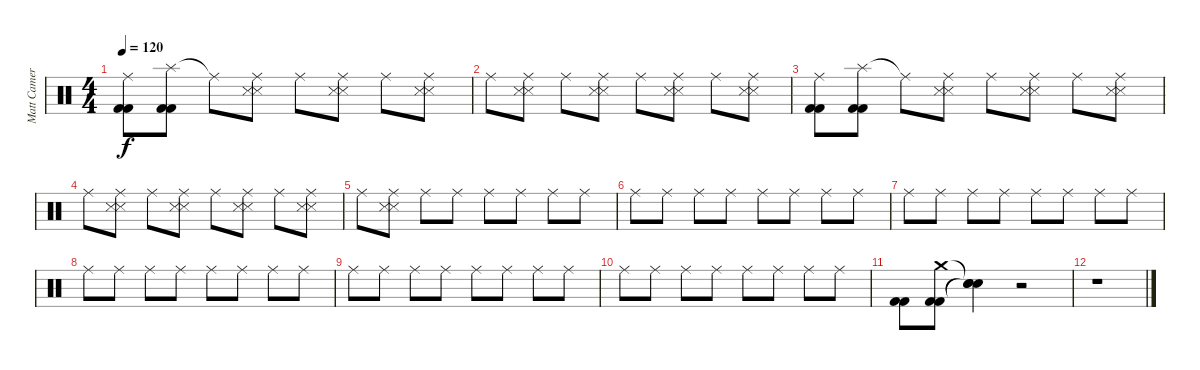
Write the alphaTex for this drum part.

\track ("Matt Cameron" "Matt Camer") {instrument percussion}
\staff {score}
\articulation defaults
\ts (4 4)
\tempo 120
\clef neutral
\ks c
("Ride (middle)" "Kick (hit) 2" "Kick (hit) 2").8{dy f} ("Splash (hit)" "Kick (hit) 2" "Kick (hit) 2").8 "Ride (middle)"{t}.8 ("Ride (middle)" "Snare (side stick) 3" "Snare (side stick) 3").8 "Ride (middle)".8 ("Ride (middle)" "Snare (side stick) 3" "Snare (side stick) 3").8 "Ride (middle)".8 ("Ride (middle)" "Snare (side stick) 3" "Snare (side stick) 3").8 |
"Ride (middle)".8 ("Ride (middle)" "Snare (side stick) 3" "Snare (side stick) 3").8 "Ride (middle)".8 ("Ride (middle)" "Snare (side stick) 3" "Snare (side stick) 3").8 "Ride (middle)".8 ("Ride (middle)" "Snare (side stick) 3" "Snare (side stick) 3").8 "Ride (middle)".8 ("Ride (middle)" "Snare (side stick) 3" "Snare (side stick) 3").8 |
("Ride (middle)" "Kick (hit) 2" "Kick (hit) 2").8 ("Splash (hit)" "Kick (hit) 2" "Kick (hit) 2").8 "Ride (middle)"{t}.8 ("Ride (middle)" "Snare (side stick) 3" "Snare (side stick) 3").8 "Ride (middle)".8 ("Ride (middle)" "Snare (side stick) 3" "Snare (side stick) 3").8 "Ride (middle)".8 ("Ride (middle)" "Snare (side stick) 3" "Snare (side stick) 3").8 |
"Ride (middle)".8 ("Ride (middle)" "Snare (side stick) 3" "Snare (side stick) 3").8 "Ride (middle)".8 ("Ride (middle)" "Snare (side stick) 3" "Snare (side stick) 3").8 "Ride (middle)".8 ("Ride (middle)" "Snare (side stick) 3" "Snare (side stick) 3").8 "Ride (middle)".8 ("Ride (middle)" "Snare (side stick) 3" "Snare (side stick) 3").8 |
"Ride (middle)".8 ("Ride (middle)" "Snare (side stick) 3" "Snare (side stick) 3").8 "Ride (middle)".8 "Ride (middle)".8 "Ride (middle)".8 "Ride (middle)".8 "Ride (middle)".8 "Ride (middle)".8 |
"Ride (middle)".8 "Ride (middle)".8 "Ride (middle)".8 "Ride (middle)".8 "Ride (middle)".8 "Ride (middle)".8 "Ride (middle)".8 "Ride (middle)".8 |
"Ride (middle)".8 "Ride (middle)".8 "Ride (middle)".8 "Ride (middle)".8 "Ride (middle)".8 "Ride (middle)".8 "Ride (middle)".8 "Ride (middle)".8 |
"Ride (middle)".8 "Ride (middle)".8 "Ride (middle)".8 "Ride (middle)".8 "Ride (middle)".8 "Ride (middle)".8 "Ride (middle)".8 "Ride (middle)".8 |
"Ride (middle)".8 "Ride (middle)".8 "Ride (middle)".8 "Ride (middle)".8 "Ride (middle)".8 "Ride (middle)".8 "Ride (middle)".8 "Ride (middle)".8 |
"Ride (middle)".8 "Ride (middle)".8 "Ride (middle)".8 "Ride (middle)".8 "Ride (middle)".8 "Ride (middle)".8 "Ride (middle)".8 "Ride (middle)".8 |
("Kick (hit) 2" "Kick (hit) 2").8 ("Crash medium (hit)" "Kick (hit) 2" "Kick (hit) 2").8 ("Snare (hit)"{t} "Snare (hit)"{t} "Snare (hit)"{t}).4 r.2 |
r.1
